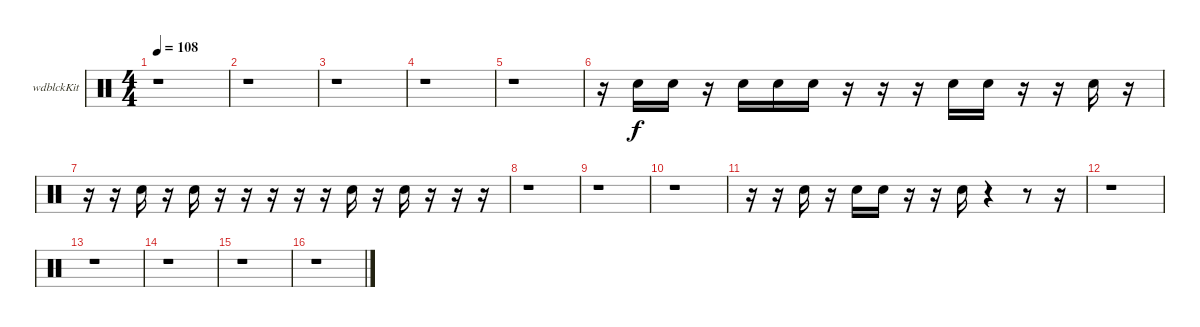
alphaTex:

\bracketExtendMode groupsimilarinstruments
\firstSystemTrackNameOrientation horizontal
\otherSystemsTrackNameOrientation horizontal
\track ("Woodblock" "wdblckKit") {instrument percussion}
\staff {score}
\articulation defaults
\ts (4 4)
\tempo 108
\clef neutral
\ks c
r.1{dy f} |
r.1 |
r.1 |
r.1 |
r.1 |
r.16 "Snare (hit) 2".16 "Snare (hit) 2".16 r.16 "Snare (hit) 2".16 "Snare (hit) 2".16 "Snare (hit) 2".16 r.16 r.16 r.16 "Snare (hit) 2".16 "Snare (hit) 2".16 r.16 r.16 "Snare (hit) 2".16 r.16 |
r.16 r.16 "Snare (hit) 2".16 r.16 "Snare (hit) 2".16 r.16 r.16 r.16 r.16 r.16 "Snare (hit) 2".16 r.16 "Snare (hit) 2".16 r.16 r.16 r.16 |
r.1 |
r.1 |
r.1 |
r.16 r.16 "Snare (hit) 2".16 r.16 "Snare (hit) 2".16 "Snare (hit) 2".16 r.16 r.16 "Snare (hit) 2".16 r.4 r.8 r.16 |
r.1 |
r.1 |
r.1 |
r.1 |
r.1
